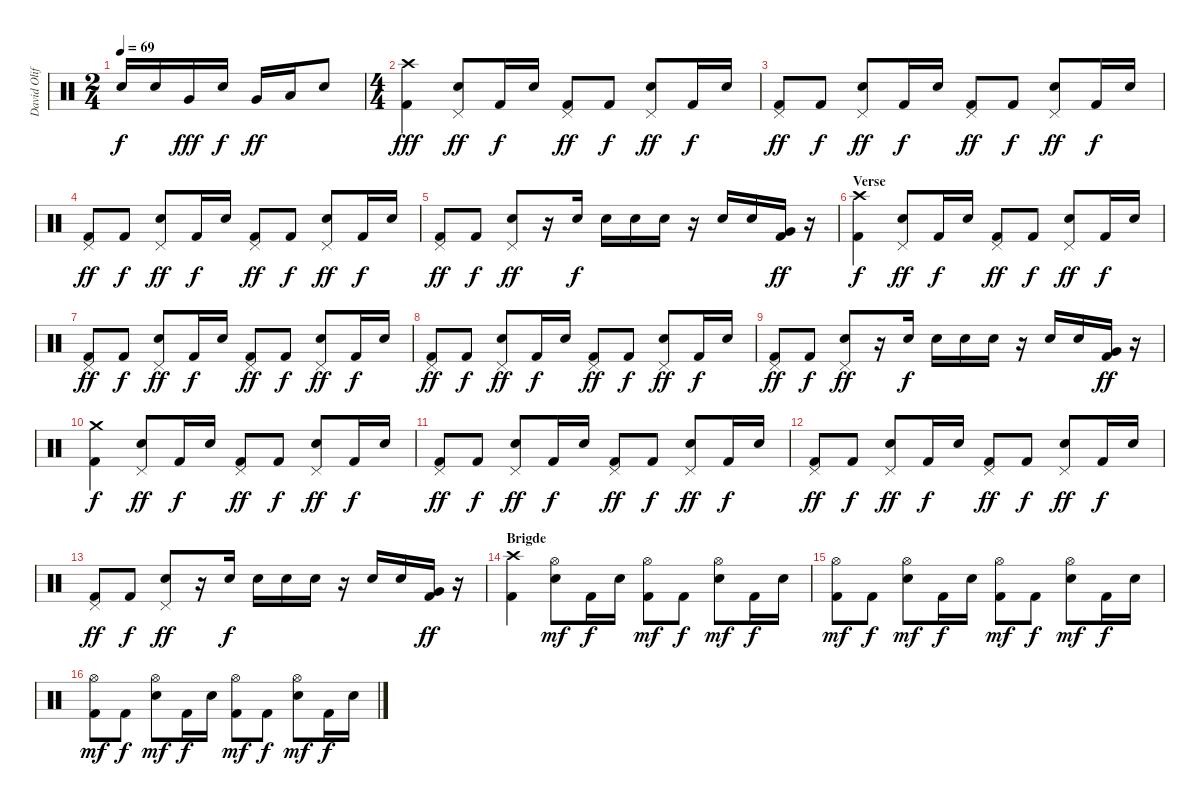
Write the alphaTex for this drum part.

\track ("David Oliffe" "David Olif") {instrument percussion}
\staff {score}
\articulation defaults
\ts (2 4)
\tempo 69
\clef neutral
\ks c "Electric Snare (hit)".16{dy f} "Electric Snare (hit)".16 "Very Low Tom (hit)".16{dy fff} "Electric Snare (hit)".16{dy f} "Very Low Tom (hit)".16{dy ff} "Low Tom (hit)".16 "Electric Snare (hit)".8
|
\ts (4 4)
("Crash high (hit)" "Kick (hit) 2").4{dy fff} ("Pedal Hi-Hat (hit)" "Electric Snare (hit)").8{dy ff} "Kick (hit) 2".16{dy f} "Electric Snare (hit)".16 ("Pedal Hi-Hat (hit)" "Kick (hit) 2").8{dy ff} "Kick (hit) 2".8{dy f} ("Pedal Hi-Hat (hit)" "Electric Snare (hit)").8{dy ff} "Kick (hit) 2".16{dy f} "Electric Snare (hit)".16 |
("Pedal Hi-Hat (hit)" "Kick (hit) 2").8{dy ff} "Kick (hit) 2".8{dy f} ("Pedal Hi-Hat (hit)" "Electric Snare (hit)").8{dy ff} "Kick (hit) 2".16{dy f} "Electric Snare (hit)".16 ("Pedal Hi-Hat (hit)" "Kick (hit) 2").8{dy ff} "Kick (hit) 2".8{dy f} ("Pedal Hi-Hat (hit)" "Electric Snare (hit)").8{dy ff} "Kick (hit) 2".16{dy f} "Electric Snare (hit)".16 |
("Pedal Hi-Hat (hit)" "Kick (hit) 2").8{dy ff} "Kick (hit) 2".8{dy f} ("Pedal Hi-Hat (hit)" "Electric Snare (hit)").8{dy ff} "Kick (hit) 2".16{dy f} "Electric Snare (hit)".16 ("Pedal Hi-Hat (hit)" "Kick (hit) 2").8{dy ff} "Kick (hit) 2".8{dy f} ("Pedal Hi-Hat (hit)" "Electric Snare (hit)").8{dy ff} "Kick (hit) 2".16{dy f} "Electric Snare (hit)".16 |
("Pedal Hi-Hat (hit)" "Kick (hit) 2").8{dy ff} "Kick (hit) 2".8{dy f} ("Pedal Hi-Hat (hit)" "Electric Snare (hit)").8{dy ff} r.16 "Electric Snare (hit)".16{dy f} "Electric Snare (hit)".16 "Electric Snare (hit)".16 "Electric Snare (hit)".16 r.16 "Electric Snare (hit)".16 "Electric Snare (hit)".16 ("Very Low Tom (hit)" "Kick (hit) 2").16{dy ff} r.16 |
\section ("" "Verse")
("Crash high (hit)" "Kick (hit) 2").4{dy f} ("Pedal Hi-Hat (hit)" "Electric Snare (hit)").8{dy ff} "Kick (hit) 2".16{dy f} "Electric Snare (hit)".16 ("Pedal Hi-Hat (hit)" "Kick (hit) 2").8{dy ff} "Kick (hit) 2".8{dy f} ("Pedal Hi-Hat (hit)" "Electric Snare (hit)").8{dy ff} "Kick (hit) 2".16{dy f} "Electric Snare (hit)".16 |
("Pedal Hi-Hat (hit)" "Kick (hit) 2").8{dy ff} "Kick (hit) 2".8{dy f} ("Pedal Hi-Hat (hit)" "Electric Snare (hit)").8{dy ff} "Kick (hit) 2".16{dy f} "Electric Snare (hit)".16 ("Pedal Hi-Hat (hit)" "Kick (hit) 2").8{dy ff} "Kick (hit) 2".8{dy f} ("Pedal Hi-Hat (hit)" "Electric Snare (hit)").8{dy ff} "Kick (hit) 2".16{dy f} "Electric Snare (hit)".16 |
("Pedal Hi-Hat (hit)" "Kick (hit) 2").8{dy ff} "Kick (hit) 2".8{dy f} ("Pedal Hi-Hat (hit)" "Electric Snare (hit)").8{dy ff} "Kick (hit) 2".16{dy f} "Electric Snare (hit)".16 ("Pedal Hi-Hat (hit)" "Kick (hit) 2").8{dy ff} "Kick (hit) 2".8{dy f} ("Pedal Hi-Hat (hit)" "Electric Snare (hit)").8{dy ff} "Kick (hit) 2".16{dy f} "Electric Snare (hit)".16 |
("Pedal Hi-Hat (hit)" "Kick (hit) 2").8{dy ff} "Kick (hit) 2".8{dy f} ("Pedal Hi-Hat (hit)" "Electric Snare (hit)").8{dy ff} r.16 "Electric Snare (hit)".16{dy f} "Electric Snare (hit)".16 "Electric Snare (hit)".16 "Electric Snare (hit)".16 r.16 "Electric Snare (hit)".16 "Electric Snare (hit)".16 ("Very Low Tom (hit)" "Kick (hit) 2").16{dy ff} r.16 |
("Crash medium (hit)" "Kick (hit) 2").4{dy f} ("Pedal Hi-Hat (hit)" "Electric Snare (hit)").8{dy ff} "Kick (hit) 2".16{dy f} "Electric Snare (hit)".16 ("Pedal Hi-Hat (hit)" "Kick (hit) 2").8{dy ff} "Kick (hit) 2".8{dy f} ("Pedal Hi-Hat (hit)" "Electric Snare (hit)").8{dy ff} "Kick (hit) 2".16{dy f} "Electric Snare (hit)".16 |
("Pedal Hi-Hat (hit)" "Kick (hit) 2").8{dy ff} "Kick (hit) 2".8{dy f} ("Pedal Hi-Hat (hit)" "Electric Snare (hit)").8{dy ff} "Kick (hit) 2".16{dy f} "Electric Snare (hit)".16 ("Pedal Hi-Hat (hit)" "Kick (hit) 2").8{dy ff} "Kick (hit) 2".8{dy f} ("Pedal Hi-Hat (hit)" "Electric Snare (hit)").8{dy ff} "Kick (hit) 2".16{dy f} "Electric Snare (hit)".16 |
("Pedal Hi-Hat (hit)" "Kick (hit) 2").8{dy ff} "Kick (hit) 2".8{dy f} ("Pedal Hi-Hat (hit)" "Electric Snare (hit)").8{dy ff} "Kick (hit) 2".16{dy f} "Electric Snare (hit)".16 ("Pedal Hi-Hat (hit)" "Kick (hit) 2").8{dy ff} "Kick (hit) 2".8{dy f} ("Pedal Hi-Hat (hit)" "Electric Snare (hit)").8{dy ff} "Kick (hit) 2".16{dy f} "Electric Snare (hit)".16 |
("Pedal Hi-Hat (hit)" "Kick (hit) 2").8{dy ff} "Kick (hit) 2".8{dy f} ("Pedal Hi-Hat (hit)" "Electric Snare (hit)").8{dy ff} r.16 "Electric Snare (hit)".16{dy f} "Electric Snare (hit)".16 "Electric Snare (hit)".16 "Electric Snare (hit)".16 r.16 "Electric Snare (hit)".16 "Electric Snare (hit)".16 ("Very Low Tom (hit)" "Kick (hit) 2").16{dy ff} r.16 |
\section ("" "Brigde")
("Crash high (hit)" "Kick (hit) 2").4 ("Hi-Hat (open)" "Electric Snare (hit)").8{dy mf} "Kick (hit) 2".16{dy f} "Electric Snare (hit)".16 ("Hi-Hat (open)" "Kick (hit) 2").8{dy mf} "Kick (hit) 2".8{dy f} ("Hi-Hat (open)" "Electric Snare (hit)").8{dy mf} "Kick (hit) 2".16{dy f} "Electric Snare (hit)".16 |
("Hi-Hat (open)" "Kick (hit) 2").8{dy mf} "Kick (hit) 2".8{dy f} ("Hi-Hat (open)" "Electric Snare (hit)").8{dy mf} "Kick (hit) 2".16{dy f} "Electric Snare (hit)".16 ("Hi-Hat (open)" "Kick (hit) 2").8{dy mf} "Kick (hit) 2".8{dy f} ("Hi-Hat (open)" "Electric Snare (hit)").8{dy mf} "Kick (hit) 2".16{dy f} "Electric Snare (hit)".16 |
("Hi-Hat (open)" "Kick (hit) 2").8{dy mf} "Kick (hit) 2".8{dy f} ("Hi-Hat (open)" "Electric Snare (hit)").8{dy mf} "Kick (hit) 2".16{dy f} "Electric Snare (hit)".16 ("Hi-Hat (open)" "Kick (hit) 2").8{dy mf} "Kick (hit) 2".8{dy f} ("Hi-Hat (open)" "Electric Snare (hit)").8{dy mf} "Kick (hit) 2".16{dy f} "Electric Snare (hit)".16
